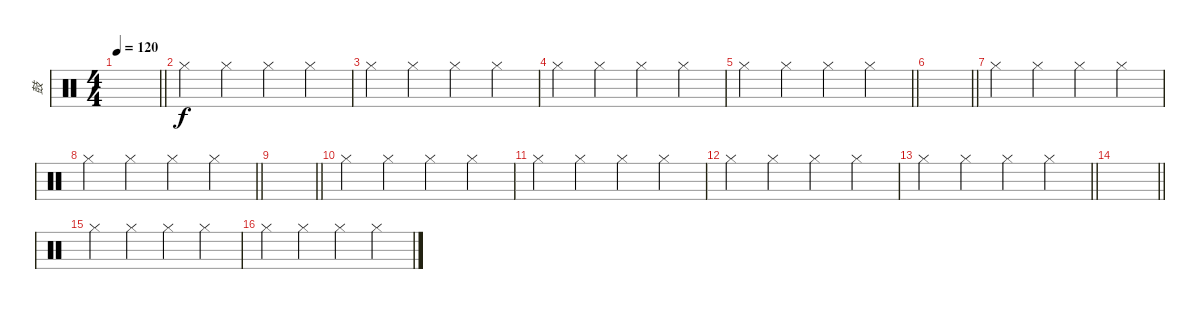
\track ("鼓" "鼓") {instrument percussion}
\staff {score}
\articulation defaults
\ts (4 4)
\tempo 120
\clef neutral
\barLineRight lightlight
\ks c
|
"Hi-Hat (closed)".4 "Hi-Hat (closed)".4 "Hi-Hat (closed)".4 "Hi-Hat (closed)".4 |
"Hi-Hat (closed)".4 "Hi-Hat (closed)".4 "Hi-Hat (closed)".4 "Hi-Hat (closed)".4 |
"Hi-Hat (closed)".4 "Hi-Hat (closed)".4 "Hi-Hat (closed)".4 "Hi-Hat (closed)".4 |
\barLineRight lightlight "Hi-Hat (closed)".4 "Hi-Hat (closed)".4 "Hi-Hat (closed)".4 "Hi-Hat (closed)".4
|
\barLineRight lightlight
|
"Hi-Hat (closed)".4 "Hi-Hat (closed)".4 "Hi-Hat (closed)".4 "Hi-Hat (closed)".4 |
\barLineRight lightlight "Hi-Hat (closed)".4 "Hi-Hat (closed)".4 "Hi-Hat (closed)".4 "Hi-Hat (closed)".4
|
\barLineRight lightlight
|
"Hi-Hat (closed)".4 "Hi-Hat (closed)".4 "Hi-Hat (closed)".4 "Hi-Hat (closed)".4 |
"Hi-Hat (closed)".4 "Hi-Hat (closed)".4 "Hi-Hat (closed)".4 "Hi-Hat (closed)".4 |
"Hi-Hat (closed)".4 "Hi-Hat (closed)".4 "Hi-Hat (closed)".4 "Hi-Hat (closed)".4 |
\barLineRight lightlight "Hi-Hat (closed)".4 "Hi-Hat (closed)".4 "Hi-Hat (closed)".4 "Hi-Hat (closed)".4
|
\barLineRight lightlight
|
"Hi-Hat (closed)".4 "Hi-Hat (closed)".4 "Hi-Hat (closed)".4 "Hi-Hat (closed)".4 |
"Hi-Hat (closed)".4 "Hi-Hat (closed)".4 "Hi-Hat (closed)".4 "Hi-Hat (closed)".4
